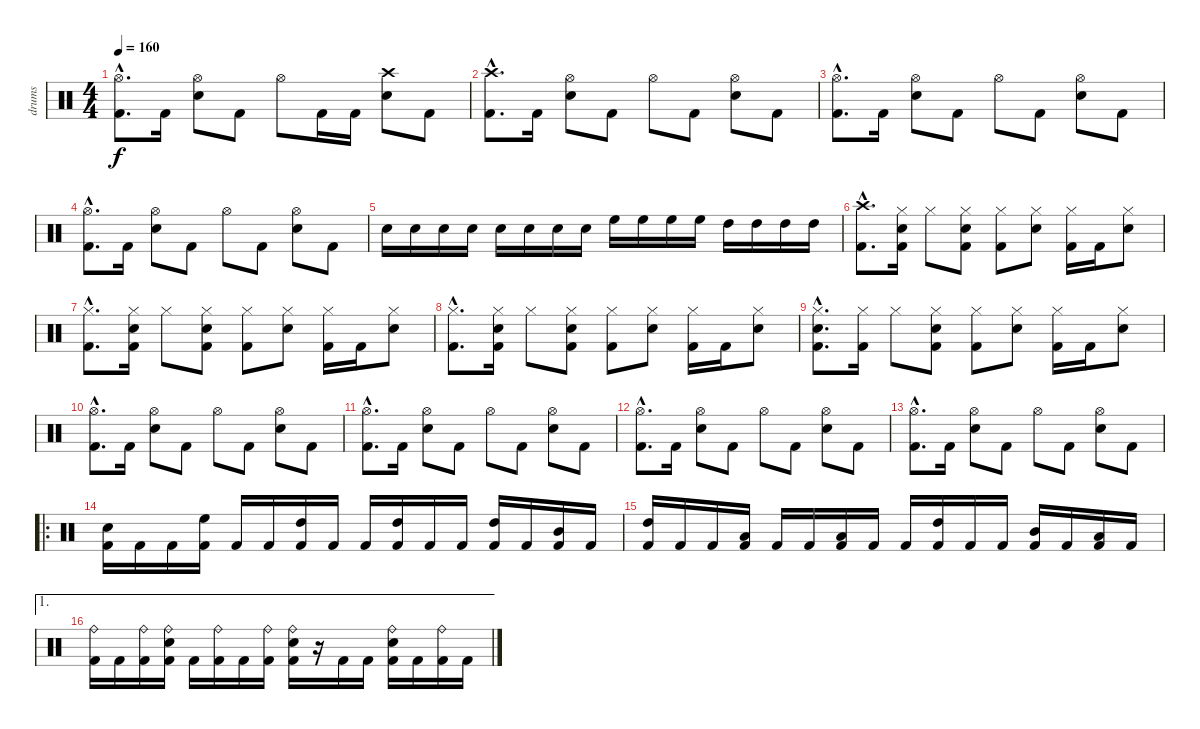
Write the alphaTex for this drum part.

\track ("drums" "drums") {instrument percussion}
\staff {score}
\articulation defaults
\ts (4 4)
\tempo 160
\clef neutral
\ks c
("Hi-Hat (open)"{hac} "Kick (hit) 2"{hac}).8{d dy f} "Kick (hit) 2".16 ("Hi-Hat (open)" "Snare (hit) 2").8 "Kick (hit) 2".8 "Hi-Hat (open)".8 "Kick (hit) 2".16 "Kick (hit) 2".16 ("Crash high (hit)" "Snare (hit) 2").8 "Kick (hit) 2".8 |
("Crash high (hit)"{hac} "Kick (hit) 2"{hac}).8{d} "Kick (hit) 2".16 ("Hi-Hat (open)" "Snare (hit) 2").8 "Kick (hit) 2".8 "Hi-Hat (open)".8 "Kick (hit) 2".8 ("Hi-Hat (open)" "Snare (hit) 2").8 "Kick (hit) 2".8 |
("Hi-Hat (open)"{hac} "Kick (hit) 2"{hac}).8{d} "Kick (hit) 2".16 ("Hi-Hat (open)" "Snare (hit) 2").8 "Kick (hit) 2".8 "Hi-Hat (open)".8 "Kick (hit) 2".8 ("Hi-Hat (open)" "Snare (hit) 2").8 "Kick (hit) 2".8 |
("Hi-Hat (open)"{hac} "Kick (hit) 2"{hac}).8{d} "Kick (hit) 2".16 ("Hi-Hat (open)" "Snare (hit) 2").8 "Kick (hit) 2".8 "Hi-Hat (open)".8 "Kick (hit) 2".8 ("Hi-Hat (open)" "Snare (hit) 2").8 "Kick (hit) 2".8 |
"Snare (hit) 2".16 "Snare (hit) 2".16 "Snare (hit) 2".16 "Snare (hit) 2".16 "Snare (hit) 2".16 "Snare (hit) 2".16 "Snare (hit) 2".16 "Snare (hit) 2".16 "High Floor Tom (hit)".16 "High Floor Tom (hit)".16 "High Floor Tom (hit)".16 "High Floor Tom (hit)".16 "High Tom (hit)".16 "High Tom (hit)".16 "High Tom (hit)".16 "High Tom (hit)".16 |
("Crash high (hit)"{hac} "Kick (hit) 2"{hac}).8{d} ("Hi-Hat (closed)" "Snare (hit) 2" "Kick (hit) 2").16 "Hi-Hat (closed)".8 ("Hi-Hat (closed)" "Snare (hit) 2" "Kick (hit) 2").8 ("Hi-Hat (closed)" "Kick (hit) 2").8 ("Hi-Hat (closed)" "Snare (hit) 2").8 ("Hi-Hat (closed)" "Kick (hit) 2").16 "Kick (hit) 2".16 ("Hi-Hat (closed)" "Snare (hit) 2").8 |
("Hi-Hat (closed)"{hac} "Kick (hit) 2"{hac}).8{d} ("Hi-Hat (closed)" "Snare (hit) 2" "Kick (hit) 2").16 "Hi-Hat (closed)".8 ("Hi-Hat (closed)" "Snare (hit) 2" "Kick (hit) 2").8 ("Hi-Hat (closed)" "Kick (hit) 2").8 ("Hi-Hat (closed)" "Snare (hit) 2").8 ("Hi-Hat (closed)" "Kick (hit) 2").16 "Kick (hit) 2".16 ("Hi-Hat (closed)" "Snare (hit) 2").8 |
("Hi-Hat (closed)"{hac} "Kick (hit) 2"{hac}).8{d} ("Hi-Hat (closed)" "Snare (hit) 2" "Kick (hit) 2").16 "Hi-Hat (closed)".8 ("Hi-Hat (closed)" "Snare (hit) 2" "Kick (hit) 2").8 ("Hi-Hat (closed)" "Kick (hit) 2").8 ("Hi-Hat (closed)" "Snare (hit) 2").8 ("Hi-Hat (closed)" "Kick (hit) 2").16 "Kick (hit) 2".16 ("Hi-Hat (closed)" "Snare (hit) 2").8 |
("Hi-Hat (closed)"{hac} "Snare (hit) 2"{hac} "Kick (hit) 2"{hac}).8{d} ("Hi-Hat (closed)" "Kick (hit) 2").16 "Hi-Hat (closed)".8 ("Hi-Hat (closed)" "Snare (hit) 2" "Kick (hit) 2").8 ("Hi-Hat (closed)" "Kick (hit) 2").8 ("Hi-Hat (closed)" "Snare (hit) 2").8 ("Hi-Hat (closed)" "Kick (hit) 2").16 "Kick (hit) 2".16 ("Hi-Hat (closed)" "Snare (hit) 2").8 |
("Hi-Hat (open)"{hac} "Kick (hit) 2"{hac}).8{d} "Kick (hit) 2".16 ("Hi-Hat (open)" "Snare (hit) 2").8 "Kick (hit) 2".8 "Hi-Hat (open)".8 "Kick (hit) 2".8 ("Hi-Hat (open)" "Snare (hit) 2").8 "Kick (hit) 2".8 |
("Hi-Hat (open)"{hac} "Kick (hit) 2"{hac}).8{d} "Kick (hit) 2".16 ("Hi-Hat (open)" "Snare (hit) 2").8 "Kick (hit) 2".8 "Hi-Hat (open)".8 "Kick (hit) 2".8 ("Hi-Hat (open)" "Snare (hit) 2").8 "Kick (hit) 2".8 |
("Hi-Hat (open)"{hac} "Kick (hit) 2"{hac}).8{d} "Kick (hit) 2".16 ("Hi-Hat (open)" "Snare (hit) 2").8 "Kick (hit) 2".8 "Hi-Hat (open)".8 "Kick (hit) 2".8 ("Hi-Hat (open)" "Snare (hit) 2").8 "Kick (hit) 2".8 |
("Hi-Hat (open)"{hac} "Kick (hit) 2"{hac}).8{d} "Kick (hit) 2".16 ("Hi-Hat (open)" "Snare (hit) 2").8 "Kick (hit) 2".8 "Hi-Hat (open)".8 "Kick (hit) 2".8 ("Hi-Hat (open)" "Snare (hit) 2").8 "Kick (hit) 2".8 |
\ro
("Snare (hit) 2" "Kick (hit) 2").16 "Kick (hit) 2".16 "Kick (hit) 2".16 ("High Floor Tom (hit)" "Kick (hit) 2").16 "Kick (hit) 2".16 "Kick (hit) 2".16 ("High Tom (hit)" "Kick (hit) 2").16 "Kick (hit) 2".16 "Kick (hit) 2".16 ("High Tom (hit)" "Kick (hit) 2").16 "Kick (hit) 2".16 "Kick (hit) 2".16 ("High Tom (hit)" "Kick (hit) 2").16 "Kick (hit) 2".16 ("Mid Tom (hit)" "Kick (hit) 2").16 "Kick (hit) 2".16 |
("High Tom (hit)" "Kick (hit) 2").16 "Kick (hit) 2".16 "Kick (hit) 2".16 ("Low Tom (hit)" "Kick (hit) 2").16 "Kick (hit) 2".16 "Kick (hit) 2".16 ("Low Tom (hit)" "Kick (hit) 2").16 "Kick (hit) 2".16 "Kick (hit) 2".16 ("High Tom (hit)" "Kick (hit) 2").16 "Kick (hit) 2".16 "Kick (hit) 2".16 ("Mid Tom (hit)" "Kick (hit) 2").16 "Kick (hit) 2".16 ("Low Tom (hit)" "Kick (hit) 2").16 "Kick (hit) 2".16 |
\ae 1
("Ride (bell)" "Kick (hit) 2").16 "Kick (hit) 2".16 ("Ride (bell)" "Kick (hit) 2").16 ("Ride (bell)" "Snare (hit) 2" "Kick (hit) 2").16 "Kick (hit) 2".16 ("Ride (bell)" "Kick (hit) 2").16 "Kick (hit) 2".16 ("Ride (bell)" "Kick (hit) 2").16 ("Ride (bell)" "Snare (hit) 2" "Kick (hit) 2").16 r.16 "Kick (hit) 2".16 "Kick (hit) 2".16 ("Ride (bell)" "Snare (hit) 2" "Kick (hit) 2").16 "Kick (hit) 2".16 ("Ride (bell)" "Kick (hit) 2").16 "Kick (hit) 2".16
